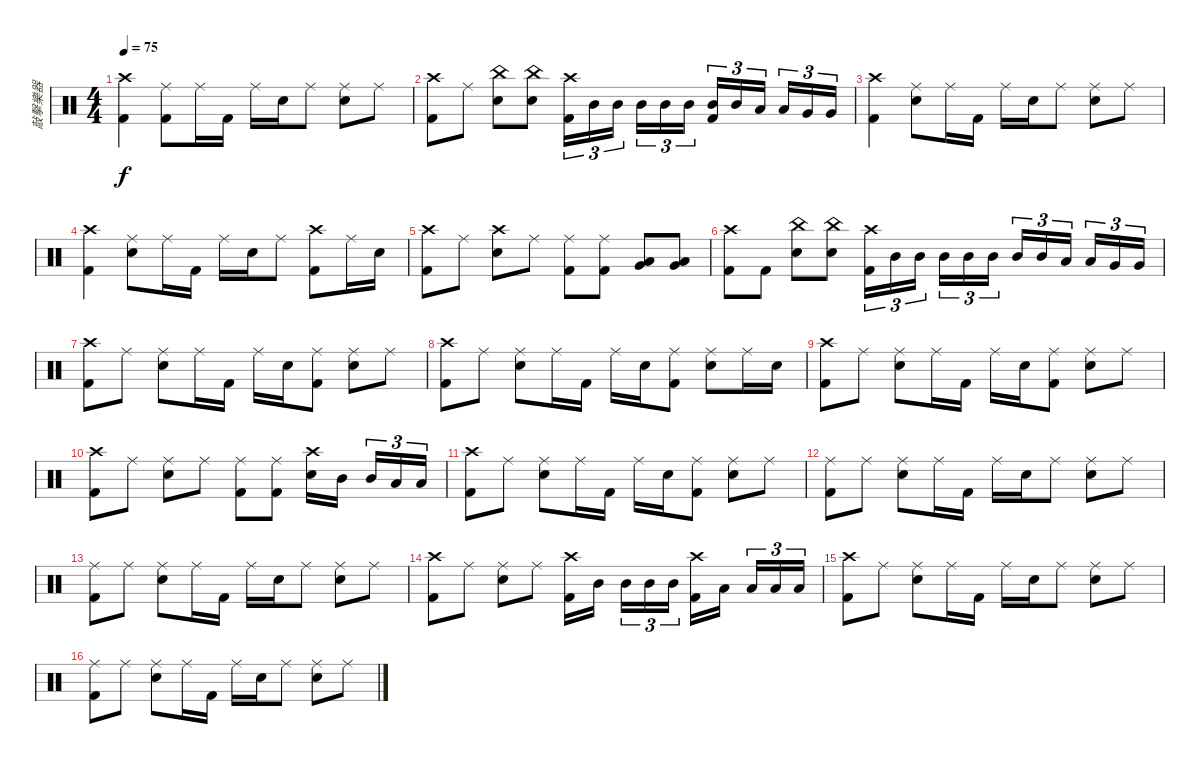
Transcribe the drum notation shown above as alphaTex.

\track ("敲擊樂器" "敲擊樂器") {instrument percussion}
\staff {score}
\articulation defaults
\ts (4 4)
\tempo 75
\clef neutral
\ks c
("Kick (hit) 2" "Crash high (hit)").4{dy f} ("Ride (middle)" "Kick (hit) 2").8 "Ride (middle)".16 "Kick (hit) 2".16 "Ride (middle)".16 "Snare (hit) 2".16 "Ride (middle)".8 ("Ride (middle)" "Snare (hit) 2").8 "Ride (middle)".8 |
("Crash high (hit)" "Kick (hit) 2").8 "Ride (middle)".8 ("China (hit)" "Snare (hit) 2").8 ("China (hit)" "Snare (hit) 2").8 ("Crash high (hit)" "Kick (hit) 2").16{tu (3 2)} "Mid Tom (hit)".16{tu (3 2)} "Mid Tom (hit)".16{tu (3 2)} "Mid Tom (hit)".16{tu (3 2)} "Mid Tom (hit)".16{tu (3 2)} "Mid Tom (hit)".16{tu (3 2)} ("Kick (hit) 2" "Mid Tom (hit)").16{tu (3 2)} "Mid Tom (hit)".16{tu (3 2)} "Low Tom (hit)".16{tu (3 2)} "Low Tom (hit)".16{tu (3 2)} "Very Low Tom (hit)".16{tu (3 2)} "Very Low Tom (hit)".16{tu (3 2)} |
("Kick (hit) 2" "Crash high (hit)").4 ("Ride (middle)" "Snare (hit) 2").8 "Ride (middle)".16 "Kick (hit) 2".16 "Ride (middle)".16 "Snare (hit) 2".16 "Ride (middle)".8 ("Ride (middle)" "Snare (hit) 2").8 "Ride (middle)".8 |
("Kick (hit) 2" "Crash high (hit)").4 ("Ride (middle)" "Snare (hit) 2").8 "Ride (middle)".16 "Kick (hit) 2".16 "Ride (middle)".16 "Snare (hit) 2".16 "Ride (middle)".8 ("Crash high (hit)" "Kick (hit) 2").8 "Ride (middle)".16 "Snare (hit) 2".16 |
("Crash high (hit)" "Kick (hit) 2").8 "Ride (middle)".8 ("Crash high (hit)" "Snare (hit) 2").8 "Ride (middle)".8 ("Ride (middle)" "Kick (hit) 2").8 ("Ride (middle)" "Kick (hit) 2").8 ("Low Tom (hit)" "Very Low Tom (hit)").8 ("Low Tom (hit)" "Very Low Tom (hit)").8 |
("Crash high (hit)" "Kick (hit) 2").8 "Kick (hit) 2".8 ("China (hit)" "Snare (hit) 2").8 ("China (hit)" "Snare (hit) 2").8 ("Crash high (hit)" "Kick (hit) 2").16{tu (3 2)} "Mid Tom (hit)".16{tu (3 2)} "Mid Tom (hit)".16{tu (3 2)} "Mid Tom (hit)".16{tu (3 2)} "Mid Tom (hit)".16{tu (3 2)} "Mid Tom (hit)".16{tu (3 2)} "Mid Tom (hit)".16{tu (3 2)} "Mid Tom (hit)".16{tu (3 2)} "Low Tom (hit)".16{tu (3 2)} "Low Tom (hit)".16{tu (3 2)} "Very Low Tom (hit)".16{tu (3 2)} "Very Low Tom (hit)".16{tu (3 2)} |
("Crash high (hit)" "Kick (hit) 2").8 "Ride (middle)".8 ("Ride (middle)" "Snare (hit) 2").8 "Ride (middle)".16 "Kick (hit) 2".16 "Ride (middle)".16 "Snare (hit) 2".16 ("Ride (middle)" "Kick (hit) 2").8 ("Ride (middle)" "Snare (hit) 2").8 "Ride (middle)".8 |
("Crash high (hit)" "Kick (hit) 2").8 "Ride (middle)".8 ("Ride (middle)" "Snare (hit) 2").8 "Ride (middle)".16 "Kick (hit) 2".16 "Ride (middle)".16 "Snare (hit) 2".16 ("Ride (middle)" "Kick (hit) 2").8 ("Ride (middle)" "Snare (hit) 2").8 "Ride (middle)".16 "Snare (hit) 2".16 |
("Kick (hit) 2" "Crash high (hit)").8 "Ride (middle)".8 ("Ride (middle)" "Snare (hit) 2").8 "Ride (middle)".16 "Kick (hit) 2".16 "Ride (middle)".16 "Snare (hit) 2".16 ("Ride (middle)" "Kick (hit) 2").8 ("Ride (middle)" "Snare (hit) 2").8 "Ride (middle)".8 |
("Crash high (hit)" "Kick (hit) 2").8 "Ride (middle)".8 ("Ride (middle)" "Snare (hit) 2").8 "Ride (middle)".8 ("Ride (middle)" "Kick (hit) 2").8 ("Ride (middle)" "Kick (hit) 2").8 ("Crash high (hit)" "Snare (hit) 2").16 "Mid Tom (hit)".16 "Mid Tom (hit)".16{tu (3 2)} "Low Tom (hit)".16{tu (3 2)} "Low Tom (hit)".16{tu (3 2)} |
("Crash high (hit)" "Kick (hit) 2").8 "Ride (middle)".8 ("Ride (middle)" "Snare (hit) 2").8 "Ride (middle)".16 "Kick (hit) 2".16 "Ride (middle)".16 "Snare (hit) 2".16 ("Ride (middle)" "Kick (hit) 2").8 ("Ride (middle)" "Snare (hit) 2").8 "Ride (middle)".8 |
("Ride (middle)" "Kick (hit) 2").8 "Ride (middle)".8 ("Ride (middle)" "Snare (hit) 2").8 "Ride (middle)".16 "Kick (hit) 2".16 "Ride (middle)".16 "Snare (hit) 2".16 "Ride (middle)".8 ("Ride (middle)" "Snare (hit) 2").8 "Ride (middle)".8 |
("Ride (middle)" "Kick (hit) 2").8 "Ride (middle)".8 ("Ride (middle)" "Snare (hit) 2").8 "Ride (middle)".16 "Kick (hit) 2".16 "Ride (middle)".16 "Snare (hit) 2".16 "Ride (middle)".8 ("Ride (middle)" "Snare (hit) 2").8 "Ride (middle)".8 |
("Crash high (hit)" "Kick (hit) 2").8 "Ride (middle)".8 ("Ride (middle)" "Snare (hit) 2").8 "Ride (middle)".8 ("Crash high (hit)" "Kick (hit) 2").16 "Mid Tom (hit)".16 "Mid Tom (hit)".16{tu (3 2)} "Mid Tom (hit)".16{tu (3 2)} "Mid Tom (hit)".16{tu (3 2)} ("Crash high (hit)" "Kick (hit) 2").16 "Low Tom (hit)".16 "Low Tom (hit)".16{tu (3 2)} "Low Tom (hit)".16{tu (3 2)} "Low Tom (hit)".16{tu (3 2)} |
("Crash high (hit)" "Kick (hit) 2").8 "Ride (middle)".8 ("Ride (middle)" "Snare (hit) 2").8 "Ride (middle)".16 "Kick (hit) 2".16 "Ride (middle)".16 "Snare (hit) 2".16 "Ride (middle)".8 ("Ride (middle)" "Snare (hit) 2").8 "Ride (middle)".8 |
("Ride (middle)" "Kick (hit) 2").8 "Ride (middle)".8 ("Ride (middle)" "Snare (hit) 2").8 "Ride (middle)".16 "Kick (hit) 2".16 "Ride (middle)".16 "Snare (hit) 2".16 "Ride (middle)".8 ("Ride (middle)" "Snare (hit) 2").8 "Ride (middle)".8
